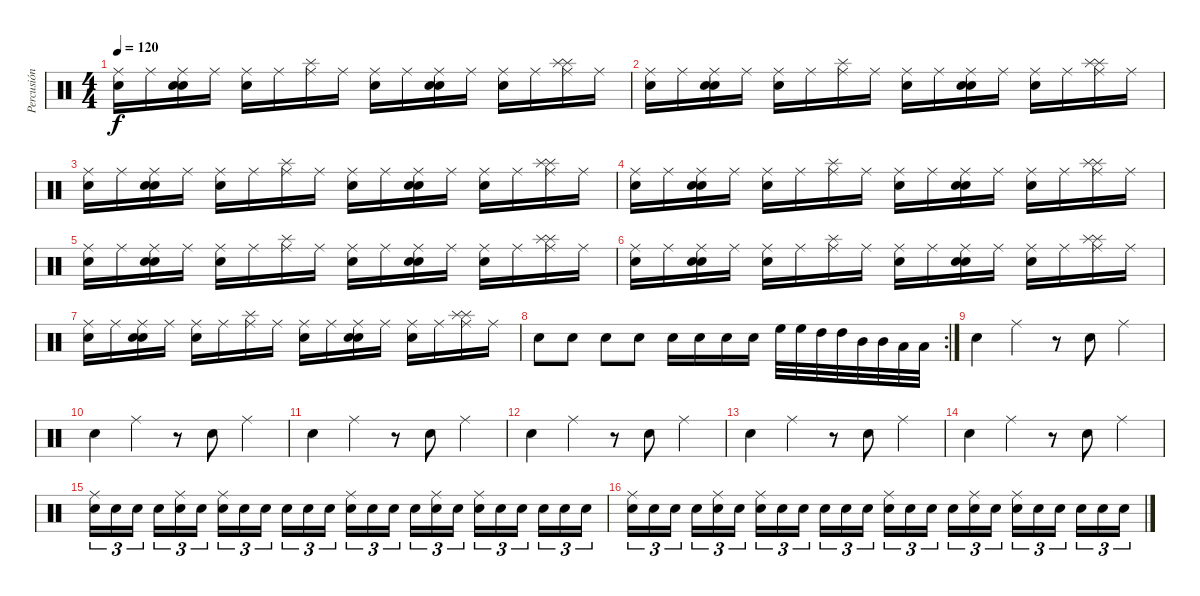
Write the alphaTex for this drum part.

\track ("Percusión" "Percusión") {instrument percussion}
\staff {score}
\articulation defaults
\ts (4 4)
\tempo 120
\clef neutral
\ks c
("Electric Snare (hit)" "Ride (middle)").16{dy f} "Ride (middle)".16 ("Snare (hit)" "Snare (hit)" "Ride (middle)").16 "Ride (middle)".16 ("Electric Snare (hit)" "Ride (middle)").16 "Ride (middle)".16 ("Splash (hit)" "Ride (middle)").16 "Ride (middle)".16 ("Electric Snare (hit)" "Ride (middle)").16 "Ride (middle)".16 ("Snare (hit)" "Snare (hit)" "Ride (middle)").16 "Ride (middle)".16 ("Electric Snare (hit)" "Ride (middle)").16 "Ride (middle)".16 ("Splash (hit)" "Splash (hit)" "Ride (middle)").16 "Ride (middle)".16 |
("Electric Snare (hit)" "Ride (middle)").16 "Ride (middle)".16 ("Snare (hit)" "Snare (hit)" "Ride (middle)").16 "Ride (middle)".16 ("Electric Snare (hit)" "Ride (middle)").16 "Ride (middle)".16 ("Splash (hit)" "Ride (middle)").16 "Ride (middle)".16 ("Electric Snare (hit)" "Ride (middle)").16 "Ride (middle)".16 ("Snare (hit)" "Snare (hit)" "Ride (middle)").16 "Ride (middle)".16 ("Electric Snare (hit)" "Ride (middle)").16 "Ride (middle)".16 ("Splash (hit)" "Splash (hit)" "Ride (middle)").16 "Ride (middle)".16 |
("Electric Snare (hit)" "Ride (middle)").16 "Ride (middle)".16 ("Snare (hit)" "Snare (hit)" "Ride (middle)").16 "Ride (middle)".16 ("Electric Snare (hit)" "Ride (middle)").16 "Ride (middle)".16 ("Splash (hit)" "Ride (middle)").16 "Ride (middle)".16 ("Electric Snare (hit)" "Ride (middle)").16 "Ride (middle)".16 ("Snare (hit)" "Snare (hit)" "Ride (middle)").16 "Ride (middle)".16 ("Electric Snare (hit)" "Ride (middle)").16 "Ride (middle)".16 ("Splash (hit)" "Splash (hit)" "Ride (middle)").16 "Ride (middle)".16 |
("Electric Snare (hit)" "Ride (middle)").16 "Ride (middle)".16 ("Snare (hit)" "Snare (hit)" "Ride (middle)").16 "Ride (middle)".16 ("Electric Snare (hit)" "Ride (middle)").16 "Ride (middle)".16 ("Splash (hit)" "Ride (middle)").16 "Ride (middle)".16 ("Electric Snare (hit)" "Ride (middle)").16 "Ride (middle)".16 ("Snare (hit)" "Snare (hit)" "Ride (middle)").16 "Ride (middle)".16 ("Electric Snare (hit)" "Ride (middle)").16 "Ride (middle)".16 ("Splash (hit)" "Splash (hit)" "Ride (middle)").16 "Ride (middle)".16 |
("Electric Snare (hit)" "Ride (middle)").16 "Ride (middle)".16 ("Snare (hit)" "Snare (hit)" "Ride (middle)").16 "Ride (middle)".16 ("Electric Snare (hit)" "Ride (middle)").16 "Ride (middle)".16 ("Splash (hit)" "Ride (middle)").16 "Ride (middle)".16 ("Electric Snare (hit)" "Ride (middle)").16 "Ride (middle)".16 ("Snare (hit)" "Snare (hit)" "Ride (middle)").16 "Ride (middle)".16 ("Electric Snare (hit)" "Ride (middle)").16 "Ride (middle)".16 ("Splash (hit)" "Splash (hit)" "Ride (middle)").16 "Ride (middle)".16 |
("Electric Snare (hit)" "Ride (middle)").16 "Ride (middle)".16 ("Snare (hit)" "Snare (hit)" "Ride (middle)").16 "Ride (middle)".16 ("Electric Snare (hit)" "Ride (middle)").16 "Ride (middle)".16 ("Splash (hit)" "Ride (middle)").16 "Ride (middle)".16 ("Electric Snare (hit)" "Ride (middle)").16 "Ride (middle)".16 ("Snare (hit)" "Snare (hit)" "Ride (middle)").16 "Ride (middle)".16 ("Electric Snare (hit)" "Ride (middle)").16 "Ride (middle)".16 ("Splash (hit)" "Splash (hit)" "Ride (middle)").16 "Ride (middle)".16 |
("Electric Snare (hit)" "Ride (middle)").16 "Ride (middle)".16 ("Snare (hit)" "Snare (hit)" "Ride (middle)").16 "Ride (middle)".16 ("Electric Snare (hit)" "Ride (middle)").16 "Ride (middle)".16 ("Splash (hit)" "Ride (middle)").16 "Ride (middle)".16 ("Electric Snare (hit)" "Ride (middle)").16 "Ride (middle)".16 ("Snare (hit)" "Snare (hit)" "Ride (middle)").16 "Ride (middle)".16 ("Electric Snare (hit)" "Ride (middle)").16 "Ride (middle)".16 ("Splash (hit)" "Splash (hit)" "Ride (middle)").16 "Ride (middle)".16 |
\rc 2 "Snare (hit) 2".8 "Snare (hit) 2".8 "Snare (hit) 2".8 "Snare (hit) 2".8 "Snare (hit) 2".16 "Snare (hit) 2".16 "Snare (hit) 2".16 "Snare (hit) 2".16 "High Floor Tom (hit)".32 "High Floor Tom (hit)".32 "High Tom (hit)".32 "High Tom (hit)".32 "Mid Tom (hit)".32 "Mid Tom (hit)".32 "Low Tom (hit)".32 "Low Tom (hit)".32
|
"Electric Snare (hit)".4 "Ride (middle)".4 r.8 "Electric Snare (hit)".8 "Ride (middle)".4 |
"Electric Snare (hit)".4 "Ride (middle)".4 r.8 "Electric Snare (hit)".8 "Ride (middle)".4 |
"Electric Snare (hit)".4 "Ride (middle)".4 r.8 "Electric Snare (hit)".8 "Ride (middle)".4 |
"Electric Snare (hit)".4 "Ride (middle)".4 r.8 "Electric Snare (hit)".8 "Ride (middle)".4 |
"Electric Snare (hit)".4 "Ride (middle)".4 r.8 "Electric Snare (hit)".8 "Ride (middle)".4 |
"Electric Snare (hit)".4 "Ride (middle)".4 r.8 "Electric Snare (hit)".8 "Ride (middle)".4 |
("Ride (middle)" "Snare (hit)").16{tu (3 2)} "Snare (hit)".16{tu (3 2)} "Snare (hit)".16{tu (3 2)} "Snare (hit)".16{tu (3 2)} ("Ride (middle)" "Snare (hit)").16{tu (3 2)} "Snare (hit)".16{tu (3 2)} ("Ride (middle)" "Snare (hit)").16{tu (3 2)} "Snare (hit)".16{tu (3 2)} "Snare (hit)".16{tu (3 2)} "Snare (hit)".16{tu (3 2)} "Snare (hit)".16{tu (3 2)} "Snare (hit)".16{tu (3 2)} ("Ride (middle)" "Snare (hit)").16{tu (3 2)} "Snare (hit)".16{tu (3 2)} "Snare (hit)".16{tu (3 2)} "Snare (hit)".16{tu (3 2)} ("Ride (middle)" "Snare (hit)").16{tu (3 2)} "Snare (hit)".16{tu (3 2)} ("Ride (middle)" "Snare (hit)").16{tu (3 2)} "Snare (hit)".16{tu (3 2)} "Snare (hit)".16{tu (3 2)} "Snare (hit)".16{tu (3 2)} "Snare (hit)".16{tu (3 2)} "Snare (hit)".16{tu (3 2)} |
("Ride (middle)" "Snare (hit)").16{tu (3 2)} "Snare (hit)".16{tu (3 2)} "Snare (hit)".16{tu (3 2)} "Snare (hit)".16{tu (3 2)} ("Ride (middle)" "Snare (hit)").16{tu (3 2)} "Snare (hit)".16{tu (3 2)} ("Ride (middle)" "Snare (hit)").16{tu (3 2)} "Snare (hit)".16{tu (3 2)} "Snare (hit)".16{tu (3 2)} "Snare (hit)".16{tu (3 2)} "Snare (hit)".16{tu (3 2)} "Snare (hit)".16{tu (3 2)} ("Ride (middle)" "Snare (hit)").16{tu (3 2)} "Snare (hit)".16{tu (3 2)} "Snare (hit)".16{tu (3 2)} "Snare (hit)".16{tu (3 2)} ("Ride (middle)" "Snare (hit)").16{tu (3 2)} "Snare (hit)".16{tu (3 2)} ("Ride (middle)" "Snare (hit)").16{tu (3 2)} "Snare (hit)".16{tu (3 2)} "Snare (hit)".16{tu (3 2)} "Snare (hit)".16{tu (3 2)} "Snare (hit)".16{tu (3 2)} "Snare (hit)".16{tu (3 2)}
